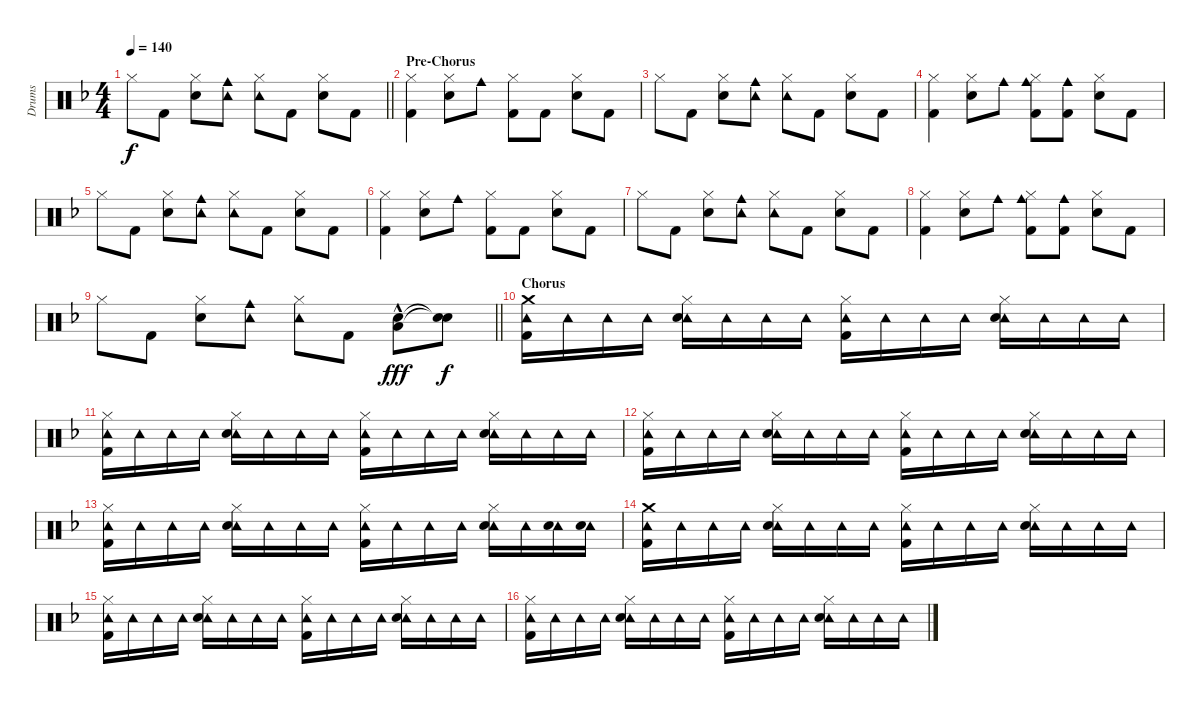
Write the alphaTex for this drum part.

\track ("Drums" "Drums") {instrument percussion}
\staff {score}
\articulation defaults
\ts (4 4)
\tempo 140
\clef neutral
\barLineRight lightlight
\ks f "Hi-Hat (closed)".8{dy f} "Kick (hit) 2".8
("Hi-Hat (closed)" "Electric Snare (hit)").8 ("Tambourine (hit)" "Cowbell medium (hit)").8 ("Hi-Hat (closed)" "Tambourine (hit)").8 "Kick (hit) 2".8 ("Hi-Hat (closed)" "Electric Snare (hit)").8 "Kick (hit) 2".8 |
\section ("" "Pre-Chorus")
("Hi-Hat (closed)" "Kick (hit) 2").4 ("Hi-Hat (closed)" "Electric Snare (hit)").8 "Cowbell medium (hit)".8 ("Hi-Hat (closed)" "Kick (hit) 2").8 "Kick (hit) 2".8 ("Hi-Hat (closed)" "Electric Snare (hit)").8 "Kick (hit) 2".8 |
"Hi-Hat (closed)".8 "Kick (hit) 2".8 ("Hi-Hat (closed)" "Electric Snare (hit)").8 ("Tambourine (hit)" "Cowbell medium (hit)").8 ("Hi-Hat (closed)" "Tambourine (hit)").8 "Kick (hit) 2".8 ("Hi-Hat (closed)" "Electric Snare (hit)").8 "Kick (hit) 2".8 |
("Hi-Hat (closed)" "Kick (hit) 2").4 ("Hi-Hat (closed)" "Electric Snare (hit)").8 "Cowbell medium (hit)".8 ("Hi-Hat (closed)" "Cowbell medium (hit)" "Kick (hit) 2").8 ("Cowbell medium (hit)" "Kick (hit) 2").8 ("Hi-Hat (closed)" "Electric Snare (hit)").8 "Kick (hit) 2".8 |
"Hi-Hat (closed)".8 "Kick (hit) 2".8 ("Hi-Hat (closed)" "Electric Snare (hit)").8 ("Tambourine (hit)" "Cowbell medium (hit)").8 ("Hi-Hat (closed)" "Tambourine (hit)").8 "Kick (hit) 2".8 ("Hi-Hat (closed)" "Electric Snare (hit)").8 "Kick (hit) 2".8 |
("Hi-Hat (closed)" "Kick (hit) 2").4 ("Hi-Hat (closed)" "Electric Snare (hit)").8 "Cowbell medium (hit)".8 ("Hi-Hat (closed)" "Kick (hit) 2").8 "Kick (hit) 2".8 ("Hi-Hat (closed)" "Electric Snare (hit)").8 "Kick (hit) 2".8 |
"Hi-Hat (closed)".8 "Kick (hit) 2".8 ("Hi-Hat (closed)" "Electric Snare (hit)").8 ("Tambourine (hit)" "Cowbell medium (hit)").8 ("Hi-Hat (closed)" "Tambourine (hit)").8 "Kick (hit) 2".8 ("Hi-Hat (closed)" "Electric Snare (hit)").8 "Kick (hit) 2".8 |
("Hi-Hat (closed)" "Kick (hit) 2").4 ("Hi-Hat (closed)" "Electric Snare (hit)").8 "Cowbell medium (hit)".8 ("Hi-Hat (closed)" "Cowbell medium (hit)" "Kick (hit) 2").8 ("Cowbell medium (hit)" "Kick (hit) 2").8 ("Hi-Hat (closed)" "Electric Snare (hit)").8 "Kick (hit) 2".8 |
\barLineRight lightlight "Hi-Hat (closed)".8 "Kick (hit) 2".8
("Hi-Hat (closed)" "Electric Snare (hit)").8 ("Tambourine (hit)" "Cowbell medium (hit)").8 ("Hi-Hat (closed)" "Tambourine (hit)").8 "Kick (hit) 2".8 ("Electric Snare (hit)" "Low Tom (hit)"{hac}).8{dy fff} ("Snare (hit)"{t} "Snare (hit)"{t}).8{dy f} |
\section ("" "Chorus")
("Crash medium (hit)" "Tambourine (hit)" "Kick (hit) 2").16 "Tambourine (hit)".16 "Tambourine (hit)".16 "Tambourine (hit)".16 ("Hi-Hat (closed)" "Tambourine (hit)" "Electric Snare (hit)").16 "Tambourine (hit)".16 "Tambourine (hit)".16 "Tambourine (hit)".16 ("Hi-Hat (closed)" "Tambourine (hit)" "Kick (hit) 2").16 "Tambourine (hit)".16 "Tambourine (hit)".16 "Tambourine (hit)".16 ("Hi-Hat (closed)" "Tambourine (hit)" "Electric Snare (hit)").16 "Tambourine (hit)".16 "Tambourine (hit)".16 "Tambourine (hit)".16 |
("Hi-Hat (closed)" "Tambourine (hit)" "Kick (hit) 2").16 "Tambourine (hit)".16 "Tambourine (hit)".16 "Tambourine (hit)".16 ("Hi-Hat (closed)" "Tambourine (hit)" "Electric Snare (hit)").16 "Tambourine (hit)".16 "Tambourine (hit)".16 "Tambourine (hit)".16 ("Hi-Hat (closed)" "Tambourine (hit)" "Kick (hit) 2").16 "Tambourine (hit)".16 "Tambourine (hit)".16 "Tambourine (hit)".16 ("Hi-Hat (closed)" "Tambourine (hit)" "Electric Snare (hit)").16 "Tambourine (hit)".16 "Tambourine (hit)".16 "Tambourine (hit)".16 |
("Hi-Hat (closed)" "Tambourine (hit)" "Kick (hit) 2").16 "Tambourine (hit)".16 "Tambourine (hit)".16 "Tambourine (hit)".16 ("Hi-Hat (closed)" "Tambourine (hit)" "Electric Snare (hit)").16 "Tambourine (hit)".16 "Tambourine (hit)".16 "Tambourine (hit)".16 ("Hi-Hat (closed)" "Tambourine (hit)" "Kick (hit) 2").16 "Tambourine (hit)".16 "Tambourine (hit)".16 "Tambourine (hit)".16 ("Hi-Hat (closed)" "Tambourine (hit)" "Electric Snare (hit)").16 "Tambourine (hit)".16 "Tambourine (hit)".16 "Tambourine (hit)".16 |
("Hi-Hat (closed)" "Tambourine (hit)" "Kick (hit) 2").16 "Tambourine (hit)".16 "Tambourine (hit)".16 "Tambourine (hit)".16 ("Hi-Hat (closed)" "Tambourine (hit)" "Electric Snare (hit)").16 "Tambourine (hit)".16 "Tambourine (hit)".16 "Tambourine (hit)".16 ("Hi-Hat (closed)" "Tambourine (hit)" "Kick (hit) 2").16 "Tambourine (hit)".16 "Tambourine (hit)".16 "Tambourine (hit)".16 ("Hi-Hat (closed)" "Tambourine (hit)" "Electric Snare (hit)").16 "Tambourine (hit)".16 ("Tambourine (hit)" "Electric Snare (hit)").16 ("Tambourine (hit)" "Electric Snare (hit)").16 |
("Crash medium (hit)" "Tambourine (hit)" "Kick (hit) 2").16 "Tambourine (hit)".16 "Tambourine (hit)".16 "Tambourine (hit)".16 ("Hi-Hat (closed)" "Tambourine (hit)" "Electric Snare (hit)").16 "Tambourine (hit)".16 "Tambourine (hit)".16 "Tambourine (hit)".16 ("Hi-Hat (closed)" "Tambourine (hit)" "Kick (hit) 2").16 "Tambourine (hit)".16 "Tambourine (hit)".16 "Tambourine (hit)".16 ("Hi-Hat (closed)" "Tambourine (hit)" "Electric Snare (hit)").16 "Tambourine (hit)".16 "Tambourine (hit)".16 "Tambourine (hit)".16 |
("Hi-Hat (closed)" "Tambourine (hit)" "Kick (hit) 2").16 "Tambourine (hit)".16 "Tambourine (hit)".16 "Tambourine (hit)".16 ("Hi-Hat (closed)" "Tambourine (hit)" "Electric Snare (hit)").16 "Tambourine (hit)".16 "Tambourine (hit)".16 "Tambourine (hit)".16 ("Hi-Hat (closed)" "Tambourine (hit)" "Kick (hit) 2").16 "Tambourine (hit)".16 "Tambourine (hit)".16 "Tambourine (hit)".16 ("Hi-Hat (closed)" "Tambourine (hit)" "Electric Snare (hit)").16 "Tambourine (hit)".16 "Tambourine (hit)".16 "Tambourine (hit)".16 |
("Hi-Hat (closed)" "Tambourine (hit)" "Kick (hit) 2").16 "Tambourine (hit)".16 "Tambourine (hit)".16 "Tambourine (hit)".16 ("Hi-Hat (closed)" "Tambourine (hit)" "Electric Snare (hit)").16 "Tambourine (hit)".16 "Tambourine (hit)".16 "Tambourine (hit)".16 ("Hi-Hat (closed)" "Tambourine (hit)" "Kick (hit) 2").16 "Tambourine (hit)".16 "Tambourine (hit)".16 "Tambourine (hit)".16 ("Hi-Hat (closed)" "Tambourine (hit)" "Electric Snare (hit)").16 "Tambourine (hit)".16 "Tambourine (hit)".16 "Tambourine (hit)".16
